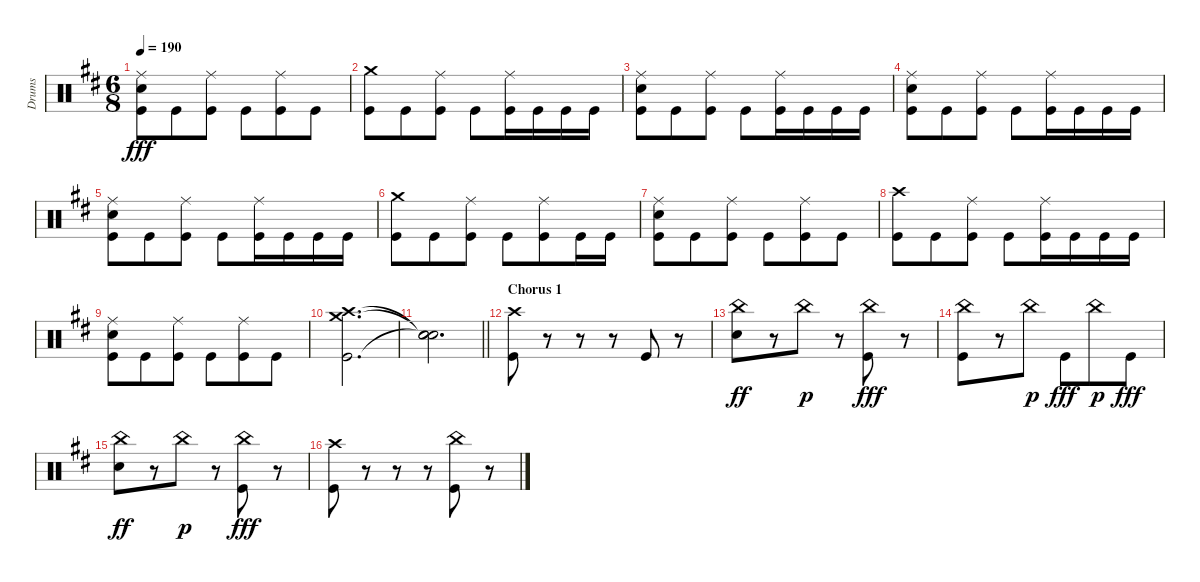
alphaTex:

\track ("Drums" "Drums") {instrument percussion}
\staff {score}
\articulation defaults
\ts (6 8)
\tempo 190
\clef neutral
\ks bminor
("Ride (middle)" "Snare (hit) 2" "Kick (hit)").8{dy fff} "Kick (hit)".8 ("Ride (middle)" "Kick (hit)").8 "Kick (hit)".8 ("Ride (middle)" "Kick (hit)").8 "Kick (hit)".8 |
("Crash medium (hit)" "Kick (hit)").8 "Kick (hit)".8 ("Ride (middle)" "Kick (hit)").8 "Kick (hit)".8 ("Ride (middle)" "Kick (hit)").16 "Kick (hit)".16 "Kick (hit)".16 "Kick (hit)".16 |
("Ride (middle)" "Snare (hit) 2" "Kick (hit)").8 "Kick (hit)".8 ("Ride (middle)" "Kick (hit)").8 "Kick (hit)".8 ("Ride (middle)" "Kick (hit)").16 "Kick (hit)".16 "Kick (hit)".16 "Kick (hit)".16 |
("Ride (middle)" "Snare (hit) 2" "Kick (hit)").8 "Kick (hit)".8 ("Ride (middle)" "Kick (hit)").8 "Kick (hit)".8 ("Ride (middle)" "Kick (hit)").16 "Kick (hit)".16 "Kick (hit)".16 "Kick (hit)".16 |
("Ride (middle)" "Snare (hit) 2" "Kick (hit)").8 "Kick (hit)".8 ("Ride (middle)" "Kick (hit)").8 "Kick (hit)".8 ("Ride (middle)" "Kick (hit)").16 "Kick (hit)".16 "Kick (hit)".16 "Kick (hit)".16 |
("Crash medium (hit)" "Kick (hit)").8 "Kick (hit)".8 ("Ride (middle)" "Kick (hit)").8 "Kick (hit)".8 ("Ride (middle)" "Kick (hit)").8 "Kick (hit)".16 "Kick (hit)".16 |
("Ride (middle)" "Snare (hit) 2" "Kick (hit)").8 "Kick (hit)".8 ("Ride (middle)" "Kick (hit)").8 "Kick (hit)".8 ("Ride (middle)" "Kick (hit)").8 "Kick (hit)".8 |
("Crash high (hit)" "Kick (hit)").8 "Kick (hit)".8 ("Ride (middle)" "Kick (hit)").8 "Kick (hit)".8 ("Ride (middle)" "Kick (hit)").16 "Kick (hit)".16 "Kick (hit)".16 "Kick (hit)".16 |
("Ride (middle)" "Snare (hit) 2" "Kick (hit)").8 "Kick (hit)".8 ("Ride (middle)" "Kick (hit)").8 "Kick (hit)".8 ("Ride (middle)" "Kick (hit)").8 "Kick (hit)".8 |
("Crash high (hit)" "Crash medium (hit)" "Kick (hit)").2{d} |
\barLineRight lightlight
("Snare (hit)"{t} "Snare (hit)"{t} "Snare (hit)"{t}).2{d} |
\section ("" "Chorus 1")
("Crash high (hit)" "Kick (hit)").8 r.8 r.8 r.8 "Kick (hit)".8 r.8 |
("China (hit)" "Snare (hit) 2").8{dy ff} r.8 "China (hit)".8{dy p} r.8 ("China (hit)" "Kick (hit)").8{dy fff} r.8 |
("China (hit)" "Kick (hit)").8 r.8 "China (hit)".8{dy p} "Kick (hit)".8{dy fff} "China (hit)".8{dy p} "Kick (hit)".8{dy fff} |
("China (hit)" "Snare (hit) 2").8{dy ff} r.8 "China (hit)".8{dy p} r.8 ("China (hit)" "Kick (hit)").8{dy fff} r.8 |
("Crash high (hit)" "Kick (hit)").8 r.8 r.8 r.8 ("China (hit)" "Kick (hit)").8 r.8
